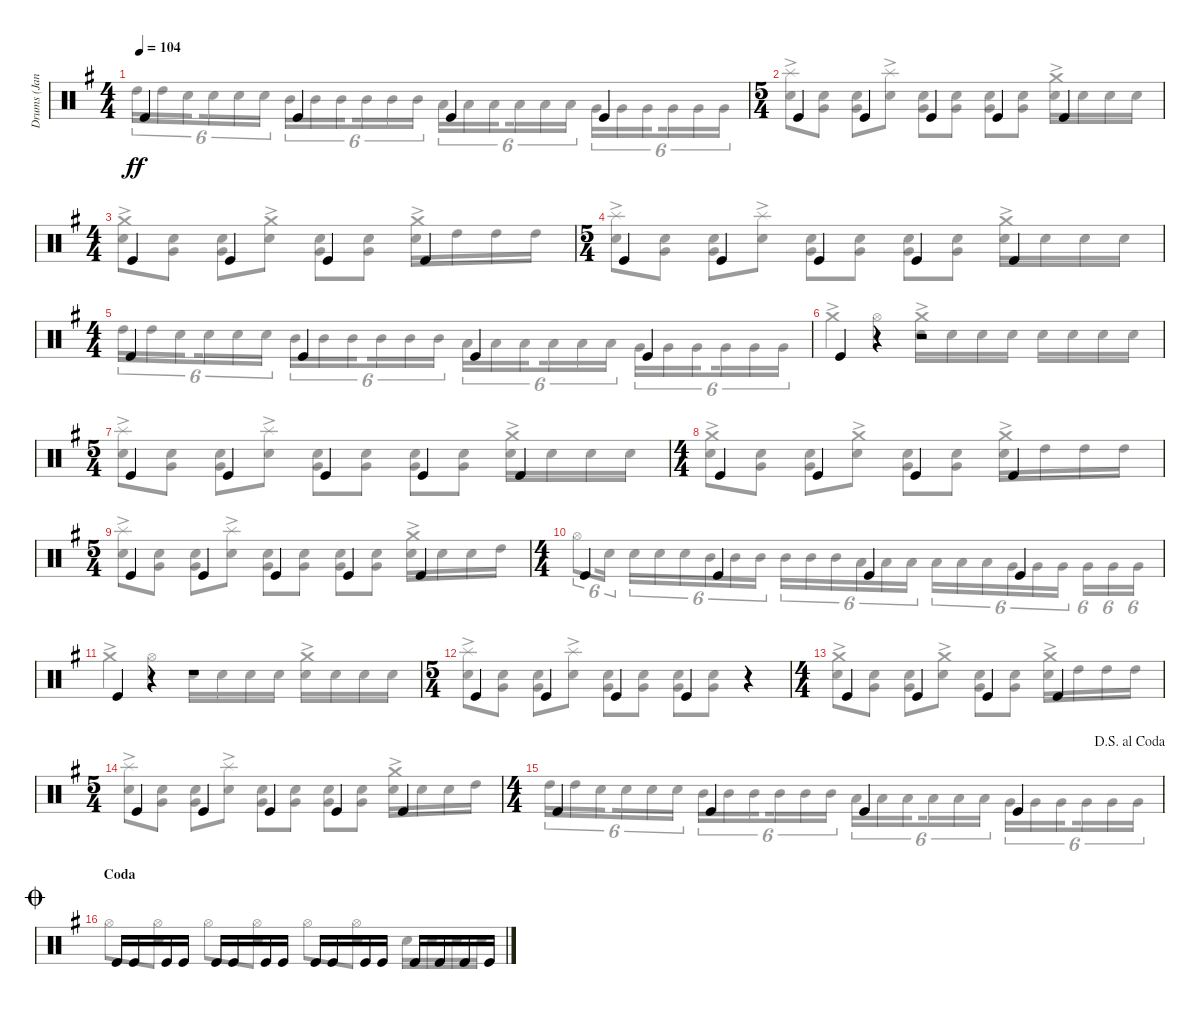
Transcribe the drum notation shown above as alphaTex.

\track ("Drums (Jane)" "Drums (Jan") {instrument percussion}
\staff {score}
\articulation defaults
\voice
\ts (4 4)
\tempo 104
\clef neutral
\ks eminor "Kick (hit)".4{dy ff} "Kick (hit)".4 "Kick (hit)".4 "Kick (hit)".4
|
\ts (5 4)
"Kick (hit)".4 "Kick (hit)".4 "Kick (hit)".4 "Kick (hit)".4 "Kick (hit)".4 |
\ts (4 4)
"Kick (hit)".4 "Kick (hit)".4 "Kick (hit)".4 "Kick (hit)".4 |
\ts (5 4)
"Kick (hit)".4 "Kick (hit)".4 "Kick (hit)".4 "Kick (hit)".4 "Kick (hit)".4 |
\ts (4 4)
"Kick (hit)".4 "Kick (hit)".4 "Kick (hit)".4 "Kick (hit)".4 |
"Kick (hit)".4 r.4 r.2 |
\ts (5 4)
"Kick (hit)".4 "Kick (hit)".4 "Kick (hit)".4 "Kick (hit)".4 "Kick (hit)".4 |
\ts (4 4)
"Kick (hit)".4 "Kick (hit)".4 "Kick (hit)".4 "Kick (hit)".4 |
\ts (5 4)
"Kick (hit)".4 "Kick (hit)".4 "Kick (hit)".4 "Kick (hit)".4 "Kick (hit)".4 |
\ts (4 4)
"Kick (hit)".4 "Kick (hit)".4 "Kick (hit)".4 "Kick (hit)".4 |
"Kick (hit)".4 r.4 r.1 |
\ts (5 4)
"Kick (hit)".4 "Kick (hit)".4 "Kick (hit)".4 "Kick (hit)".4 r.4 |
\ts (4 4)
"Kick (hit)".4 "Kick (hit)".4 "Kick (hit)".4 "Kick (hit)".4 |
\ts (5 4)
"Kick (hit)".4 "Kick (hit)".4 "Kick (hit)".4 "Kick (hit)".4 "Kick (hit)".4 |
\ts (4 4)
\jump dalsegnoalcoda "Kick (hit)".4 "Kick (hit)".4 "Kick (hit)".4 "Kick (hit)".4
|
\section ("" "Coda")
\jump coda "Kick (hit)".16 "Kick (hit)".16 "Kick (hit)".16 "Kick (hit)".16 "Kick (hit)".16 "Kick (hit)".16 "Kick (hit)".16 "Kick (hit)".16 "Kick (hit)".16 "Kick (hit)".16 "Kick (hit)".16 "Kick (hit)".16 "Kick (hit)".16 "Kick (hit)".16 "Kick (hit)".16 "Kick (hit)".16
\voice
\clef neutral
\ottava regular
\simile none
\ks eminor "High Tom (hit)".16{tu (6 4) dy ff} "High Tom (hit)".16{tu (6 4)} "Snare (hit) 2".16{tu (6 4) beam splitsecondary} "Snare (hit) 2".16{tu (6 4)} "Snare (hit) 2".16{tu (6 4)} "Snare (hit) 2".16{tu (6 4)} "Mid Tom (hit)".16{tu (6 4)} "Mid Tom (hit)".16{tu (6 4)} "Mid Tom (hit)".16{tu (6 4) beam splitsecondary} "Mid Tom (hit)".16{tu (6 4)} "Mid Tom (hit)".16{tu (6 4)} "Mid Tom (hit)".16{tu (6 4)} "Low Tom (hit)".16{tu (6 4)} "Low Tom (hit)".16{tu (6 4)} "Low Tom (hit)".16{tu (6 4) beam splitsecondary} "Low Tom (hit)".16{tu (6 4)} "Low Tom (hit)".16{tu (6 4)} "Low Tom (hit)".16{tu (6 4)} "Very Low Tom (hit)".16{tu (6 4)} "Very Low Tom (hit)".16{tu (6 4)} "Very Low Tom (hit)".16{tu (6 4) beam splitsecondary} "Very Low Tom (hit)".16{tu (6 4)} "Very Low Tom (hit)".16{tu (6 4)} "Very Low Tom (hit)".16{tu (6 4)}
|
("Snare (hit) 2" "Splash (hit)"{ac}).8 ("Snare (hit) 2" "Very Low Tom (hit)").8 ("Snare (hit) 2" "Very Low Tom (hit)").8 ("Snare (hit) 2" "Splash (hit)"{ac}).8 ("Snare (hit) 2" "Very Low Tom (hit)").8 ("Snare (hit) 2" "Very Low Tom (hit)").8 ("Snare (hit) 2" "Very Low Tom (hit)").8 ("Snare (hit) 2" "Very Low Tom (hit)").8 ("Snare (hit) 2" "Crash medium (hit)"{ac}).16 "Snare (hit) 2".16 "Snare (hit) 2".16 "Snare (hit) 2".16 |
("Snare (hit) 2" "Crash medium (hit)"{ac}).8 ("Snare (hit) 2" "Very Low Tom (hit)").8 ("Snare (hit) 2" "Very Low Tom (hit)").8 ("Snare (hit) 2" "Crash medium (hit)"{ac}).8 ("Snare (hit) 2" "Very Low Tom (hit)").8 ("Snare (hit) 2" "Very Low Tom (hit)").8 ("Snare (hit) 2" "Crash medium (hit)"{ac}).16 "High Tom (hit)".16 "High Tom (hit)".16 "High Tom (hit)".16 |
("Snare (hit) 2" "Splash (hit)"{ac}).8 ("Snare (hit) 2" "Very Low Tom (hit)").8 ("Snare (hit) 2" "Very Low Tom (hit)").8 ("Snare (hit) 2" "Splash (hit)"{ac}).8 ("Snare (hit) 2" "Very Low Tom (hit)").8 ("Snare (hit) 2" "Very Low Tom (hit)").8 ("Snare (hit) 2" "Very Low Tom (hit)").8 ("Snare (hit) 2" "Very Low Tom (hit)").8 ("Snare (hit) 2" "Crash medium (hit)"{ac}).16 "Snare (hit) 2".16 "Snare (hit) 2".16 "Snare (hit) 2".16 |
"High Tom (hit)".16{tu (6 4)} "High Tom (hit)".16{tu (6 4)} "Snare (hit) 2".16{tu (6 4) beam splitsecondary} "Snare (hit) 2".16{tu (6 4)} "Snare (hit) 2".16{tu (6 4)} "Snare (hit) 2".16{tu (6 4)} "Mid Tom (hit)".16{tu (6 4)} "Mid Tom (hit)".16{tu (6 4)} "Mid Tom (hit)".16{tu (6 4) beam splitsecondary} "Mid Tom (hit)".16{tu (6 4)} "Mid Tom (hit)".16{tu (6 4)} "Mid Tom (hit)".16{tu (6 4)} "Low Tom (hit)".16{tu (6 4)} "Low Tom (hit)".16{tu (6 4)} "Low Tom (hit)".16{tu (6 4) beam splitsecondary} "Low Tom (hit)".16{tu (6 4)} "Low Tom (hit)".16{tu (6 4)} "Low Tom (hit)".16{tu (6 4)} "Very Low Tom (hit)".16{tu (6 4)} "Very Low Tom (hit)".16{tu (6 4)} "Very Low Tom (hit)".16{tu (6 4) beam splitsecondary} "Very Low Tom (hit)".16{tu (6 4)} "Very Low Tom (hit)".16{tu (6 4)} "Very Low Tom (hit)".16{tu (6 4)} |
"Crash medium (hit)"{ac}.4 "Hi-Hat (open)".4 ("Crash medium (hit)"{ac} "Snare (hit) 2").16 "Snare (hit) 2".16 "Snare (hit) 2".16 "Snare (hit) 2".16 "Snare (hit) 2".16 "Snare (hit) 2".16 "Snare (hit) 2".16 "Snare (hit) 2".16 |
("Snare (hit) 2" "Splash (hit)"{ac}).8 ("Snare (hit) 2" "Very Low Tom (hit)").8 ("Snare (hit) 2" "Very Low Tom (hit)").8 ("Snare (hit) 2" "Splash (hit)"{ac}).8 ("Snare (hit) 2" "Very Low Tom (hit)").8 ("Snare (hit) 2" "Very Low Tom (hit)").8 ("Snare (hit) 2" "Very Low Tom (hit)").8 ("Snare (hit) 2" "Very Low Tom (hit)").8 ("Snare (hit) 2" "Crash medium (hit)"{ac}).16 "Snare (hit) 2".16 "Snare (hit) 2".16 "Snare (hit) 2".16 |
("Snare (hit) 2" "Crash medium (hit)"{ac}).8 ("Snare (hit) 2" "Very Low Tom (hit)").8 ("Snare (hit) 2" "Very Low Tom (hit)").8 ("Snare (hit) 2" "Crash medium (hit)"{ac}).8 ("Snare (hit) 2" "Very Low Tom (hit)").8 ("Snare (hit) 2" "Very Low Tom (hit)").8 ("Snare (hit) 2" "Crash medium (hit)"{ac}).16 "High Tom (hit)".16 "High Tom (hit)".16 "High Tom (hit)".16 |
("Snare (hit) 2" "Splash (hit)"{ac}).8 ("Snare (hit) 2" "Very Low Tom (hit)").8 ("Snare (hit) 2" "Very Low Tom (hit)").8 ("Snare (hit) 2" "Splash (hit)"{ac}).8 ("Snare (hit) 2" "Very Low Tom (hit)").8 ("Snare (hit) 2" "Very Low Tom (hit)").8 ("Snare (hit) 2" "Very Low Tom (hit)").8 ("Snare (hit) 2" "Very Low Tom (hit)").8 ("Snare (hit) 2" "Crash medium (hit)"{ac}).16 "Snare (hit) 2".16 "Snare (hit) 2".16 "High Tom (hit)".16 |
"Hi-Hat (open)".8{tu (6 4)} "Snare (hit) 2".16{tu (6 4) beam splitsecondary} "Snare (hit) 2".16{tu (6 4)} "Snare (hit) 2".16{tu (6 4)} "Snare (hit) 2".16{tu (6 4)} "Mid Tom (hit)".16{tu (6 4)} "Mid Tom (hit)".16{tu (6 4)} "Mid Tom (hit)".16{tu (6 4) beam splitsecondary} "Mid Tom (hit)".16{tu (6 4)} "Mid Tom (hit)".16{tu (6 4)} "Mid Tom (hit)".16{tu (6 4)} "Low Tom (hit)".16{tu (6 4)} "Low Tom (hit)".16{tu (6 4)} "Low Tom (hit)".16{tu (6 4) beam splitsecondary} "Low Tom (hit)".16{tu (6 4)} "Low Tom (hit)".16{tu (6 4)} "Low Tom (hit)".16{tu (6 4)} "Very Low Tom (hit)".16{tu (6 4)} "Very Low Tom (hit)".16{tu (6 4)} "Very Low Tom (hit)".16{tu (6 4) beam splitsecondary} "Very Low Tom (hit)".16{tu (6 4)} "Very Low Tom (hit)".16{tu (6 4)} "Very Low Tom (hit)".16{tu (6 4)} |
"Crash medium (hit)"{ac}.4 "Hi-Hat (open)".4 "Snare (hit) 2".16 "Snare (hit) 2".16 "Snare (hit) 2".16 "Snare (hit) 2".16 ("Snare (hit) 2" "Crash medium (hit)"{ac}).16 "Snare (hit) 2".16 "Snare (hit) 2".16 "Snare (hit) 2".16 |
("Snare (hit) 2" "Splash (hit)"{ac}).8 ("Snare (hit) 2" "Very Low Tom (hit)").8 ("Snare (hit) 2" "Very Low Tom (hit)").8 ("Snare (hit) 2" "Splash (hit)"{ac}).8 ("Snare (hit) 2" "Very Low Tom (hit)").8 ("Snare (hit) 2" "Very Low Tom (hit)").8 ("Snare (hit) 2" "Very Low Tom (hit)").8 ("Snare (hit) 2" "Very Low Tom (hit)").8 r.4 |
("Snare (hit) 2" "Crash medium (hit)"{ac}).8 ("Snare (hit) 2" "Very Low Tom (hit)").8 ("Snare (hit) 2" "Very Low Tom (hit)").8 ("Snare (hit) 2" "Crash medium (hit)"{ac}).8 ("Snare (hit) 2" "Very Low Tom (hit)").8 ("Snare (hit) 2" "Very Low Tom (hit)").8 ("Snare (hit) 2" "Crash medium (hit)"{ac}).16 "High Tom (hit)".16 "High Tom (hit)".16 "High Tom (hit)".16 |
("Snare (hit) 2" "Splash (hit)"{ac}).8 ("Snare (hit) 2" "Very Low Tom (hit)").8 ("Snare (hit) 2" "Very Low Tom (hit)").8 ("Snare (hit) 2" "Splash (hit)"{ac}).8 ("Snare (hit) 2" "Very Low Tom (hit)").8 ("Snare (hit) 2" "Very Low Tom (hit)").8 ("Snare (hit) 2" "Very Low Tom (hit)").8 ("Snare (hit) 2" "Very Low Tom (hit)").8 ("Snare (hit) 2" "Crash medium (hit)"{ac}).16 "Snare (hit) 2".16 "Snare (hit) 2".16 "High Tom (hit)".16 |
"High Tom (hit)".16{tu (6 4)} "High Tom (hit)".16{tu (6 4)} "Snare (hit) 2".16{tu (6 4) beam splitsecondary} "Snare (hit) 2".16{tu (6 4)} "Snare (hit) 2".16{tu (6 4)} "Snare (hit) 2".16{tu (6 4)} "Mid Tom (hit)".16{tu (6 4)} "Mid Tom (hit)".16{tu (6 4)} "Mid Tom (hit)".16{tu (6 4) beam splitsecondary} "Mid Tom (hit)".16{tu (6 4)} "Mid Tom (hit)".16{tu (6 4)} "Mid Tom (hit)".16{tu (6 4)} "Low Tom (hit)".16{tu (6 4)} "Low Tom (hit)".16{tu (6 4)} "Low Tom (hit)".16{tu (6 4) beam splitsecondary} "Low Tom (hit)".16{tu (6 4)} "Low Tom (hit)".16{tu (6 4)} "Low Tom (hit)".16{tu (6 4)} "Very Low Tom (hit)".16{tu (6 4)} "Very Low Tom (hit)".16{tu (6 4)} "Very Low Tom (hit)".16{tu (6 4) beam splitsecondary} "Very Low Tom (hit)".16{tu (6 4)} "Very Low Tom (hit)".16{tu (6 4)} "Very Low Tom (hit)".16{tu (6 4)} |
"Hi-Hat (open)".8 ("Hi-Hat (open)" "Snare (hit) 2").8 "Hi-Hat (open)".8 ("Hi-Hat (open)" "Snare (hit) 2").8 "Hi-Hat (open)".8 ("Hi-Hat (open)" "Snare (hit) 2").8 "Snare (hit) 2".16 "Snare (hit) 2".16 "Snare (hit) 2".16 "Snare (hit) 2".16
